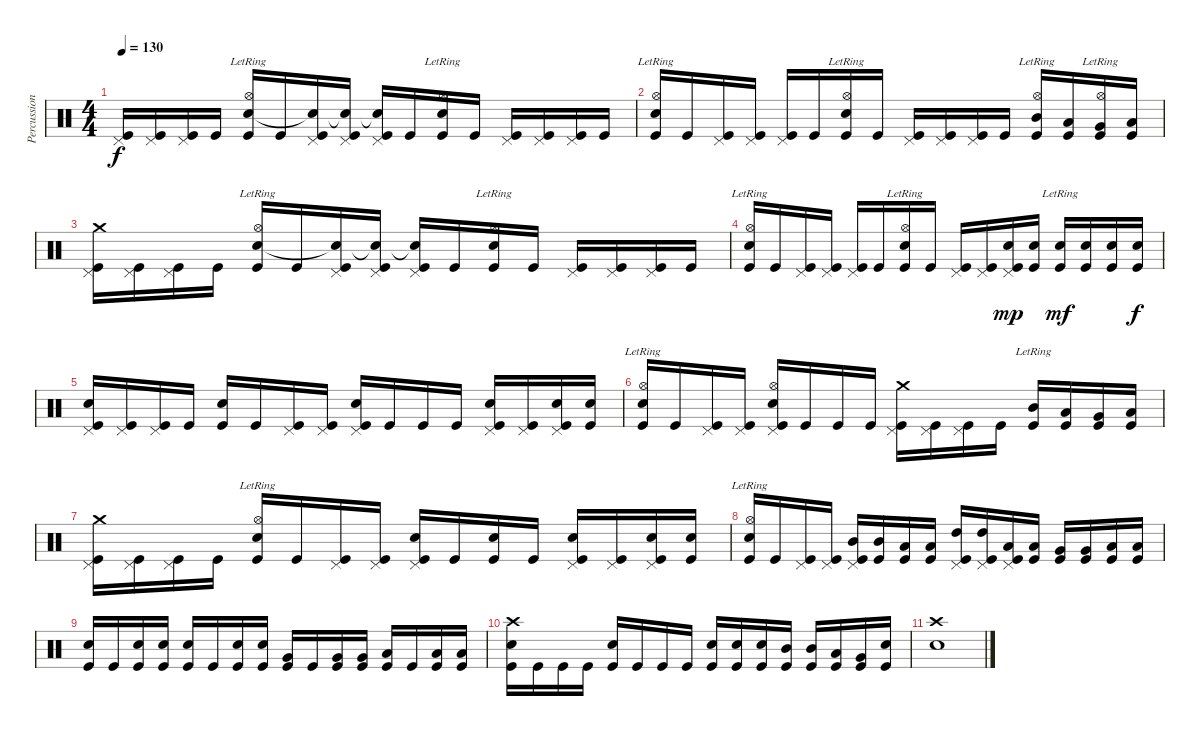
\track ("Percussions" "Percussion") {instrument percussion}
\staff {score}
\articulation defaults
\ts (4 4)
\tempo 130
\clef neutral
\ks c
("Pedal Hi-Hat (hit)" "Kick (hit)").16{dy f} ("Pedal Hi-Hat (hit)" "Kick (hit)").16 ("Pedal Hi-Hat (hit)" "Kick (hit)").16 "Kick (hit)".16 ("Hi-Hat (open)"{lr} "Electric Snare (hit)" "Kick (hit)").16 "Kick (hit)".16 ("Pedal Hi-Hat (hit)" "Snare (hit)"{t} "Kick (hit)").16 ("Pedal Hi-Hat (hit)" "Snare (hit)"{t} "Kick (hit)").16 ("Pedal Hi-Hat (hit)" "Snare (hit)"{t} "Kick (hit)").16 "Kick (hit)".16 ("Hi-Hat (open)"{lr} "Electric Snare (hit)" "Kick (hit)").16 "Kick (hit)".16 ("Pedal Hi-Hat (hit)" "Kick (hit)").16 ("Pedal Hi-Hat (hit)" "Kick (hit)").16 ("Pedal Hi-Hat (hit)" "Kick (hit)").16 "Kick (hit)".16 |
("Hi-Hat (open)"{lr} "Electric Snare (hit)" "Kick (hit)").16 "Kick (hit)".16 ("Pedal Hi-Hat (hit)" "Kick (hit)").16 ("Pedal Hi-Hat (hit)" "Kick (hit)").16 ("Pedal Hi-Hat (hit)" "Kick (hit)").16 "Kick (hit)".16 ("Hi-Hat (open)"{lr} "Electric Snare (hit)" "Kick (hit)").16 "Kick (hit)".16 ("Pedal Hi-Hat (hit)" "Kick (hit)").16 ("Pedal Hi-Hat (hit)" "Kick (hit)").16 ("Pedal Hi-Hat (hit)" "Kick (hit)").16 "Kick (hit)".16 ("Hi-Hat (open)"{lr} "Mid Tom (hit)"{lr} "Kick (hit)").16 ("Low Tom (hit)" "Kick (hit)").16 ("Hi-Hat (open)"{lr} "Very Low Tom (hit)" "Kick (hit)").16 ("Low Floor Tom (hit)" "Kick (hit)").16 |
("Pedal Hi-Hat (hit)" "Crash medium (hit)" "Kick (hit)").16 ("Pedal Hi-Hat (hit)" "Kick (hit)").16 ("Pedal Hi-Hat (hit)" "Kick (hit)").16 "Kick (hit)".16 ("Hi-Hat (open)"{lr} "Electric Snare (hit)" "Kick (hit)").16 "Kick (hit)".16 ("Pedal Hi-Hat (hit)" "Snare (hit)"{t} "Kick (hit)").16 ("Pedal Hi-Hat (hit)" "Snare (hit)"{t} "Kick (hit)").16 ("Pedal Hi-Hat (hit)" "Snare (hit)"{t} "Kick (hit)").16 "Kick (hit)".16 ("Hi-Hat (open)"{lr} "Electric Snare (hit)" "Kick (hit)").16 "Kick (hit)".16 ("Pedal Hi-Hat (hit)" "Kick (hit)").16 ("Pedal Hi-Hat (hit)" "Kick (hit)").16 ("Pedal Hi-Hat (hit)" "Kick (hit)").16 "Kick (hit)".16 |
("Hi-Hat (open)"{lr} "Electric Snare (hit)" "Kick (hit)").16 "Kick (hit)".16 ("Pedal Hi-Hat (hit)" "Kick (hit)").16 ("Pedal Hi-Hat (hit)" "Kick (hit)").16 ("Pedal Hi-Hat (hit)" "Kick (hit)").16 "Kick (hit)".16 ("Hi-Hat (open)"{lr} "Electric Snare (hit)" "Kick (hit)").16 "Kick (hit)".16 ("Pedal Hi-Hat (hit)" "Kick (hit)").16 ("Pedal Hi-Hat (hit)" "Kick (hit)").16 ("Pedal Hi-Hat (hit)" "Electric Snare (hit)" "Kick (hit)").16{dy mp} ("Electric Snare (hit)" "Kick (hit)").16 ("Electric Snare (hit)"{lr} "Kick (hit)").16{dy mf} ("Snare (hit) 2" "Kick (hit)").16 ("Snare (hit) 2" "Kick (hit)").16 ("Snare (hit) 2" "Kick (hit)").16{dy f} |
("Pedal Hi-Hat (hit)" "Electric Snare (hit)" "Kick (hit)").16 ("Pedal Hi-Hat (hit)" "Kick (hit)").16 ("Pedal Hi-Hat (hit)" "Kick (hit)").16 "Kick (hit)".16 ("Electric Snare (hit)" "Kick (hit)").16 "Kick (hit)".16 ("Pedal Hi-Hat (hit)" "Kick (hit)").16 ("Pedal Hi-Hat (hit)" "Kick (hit)").16 ("Pedal Hi-Hat (hit)" "Electric Snare (hit)" "Kick (hit)").16 "Kick (hit)".16 "Kick (hit)".16 "Kick (hit)".16 ("Pedal Hi-Hat (hit)" "Snare (hit) 2" "Kick (hit)").16 ("Pedal Hi-Hat (hit)" "Kick (hit)").16 ("Pedal Hi-Hat (hit)" "Snare (hit) 2" "Kick (hit)").16 ("Snare (hit) 2" "Kick (hit)").16 |
("Hi-Hat (open)"{lr} "Electric Snare (hit)" "Kick (hit)").16 "Kick (hit)".16 ("Pedal Hi-Hat (hit)" "Kick (hit)").16 ("Pedal Hi-Hat (hit)" "Kick (hit)").16 ("Pedal Hi-Hat (hit)" "Hi-Hat (open)" "Electric Snare (hit)" "Kick (hit)").16 "Kick (hit)".16 "Kick (hit)".16 "Kick (hit)".16 ("Pedal Hi-Hat (hit)" "Crash medium (hit)" "Kick (hit)").16 ("Pedal Hi-Hat (hit)" "Kick (hit)").16 ("Pedal Hi-Hat (hit)" "Kick (hit)").16 "Kick (hit)".16 ("Mid Tom (hit)"{lr} "Kick (hit)").16 ("Low Tom (hit)" "Kick (hit)").16 ("Very Low Tom (hit)" "Kick (hit)").16 ("Low Floor Tom (hit)" "Kick (hit)").16 |
("Pedal Hi-Hat (hit)" "Crash medium (hit)" "Kick (hit)").16 ("Pedal Hi-Hat (hit)" "Kick (hit)").16 ("Pedal Hi-Hat (hit)" "Kick (hit)").16 "Kick (hit)".16 ("Hi-Hat (open)"{lr} "Electric Snare (hit)" "Kick (hit)").16 "Kick (hit)".16 ("Pedal Hi-Hat (hit)" "Kick (hit)").16 ("Pedal Hi-Hat (hit)" "Kick (hit)").16 ("Pedal Hi-Hat (hit)" "Electric Snare (hit)" "Kick (hit)").16 "Kick (hit)".16 ("Electric Snare (hit)" "Kick (hit)").16 "Kick (hit)".16 ("Pedal Hi-Hat (hit)" "Snare (hit) 2" "Kick (hit)").16 ("Pedal Hi-Hat (hit)" "Kick (hit)").16 ("Pedal Hi-Hat (hit)" "Snare (hit) 2" "Kick (hit)").16 ("Snare (hit) 2" "Kick (hit)").16 |
("Hi-Hat (open)"{lr} "Electric Snare (hit)" "Kick (hit)").16 "Kick (hit)".16 ("Pedal Hi-Hat (hit)" "Kick (hit)").16 ("Pedal Hi-Hat (hit)" "Kick (hit)").16 ("Pedal Hi-Hat (hit)" "Mid Tom (hit)" "Kick (hit)").16 ("Mid Tom (hit)" "Kick (hit)").16 ("Low Tom (hit)" "Kick (hit)").16 ("Low Tom (hit)" "Kick (hit)").16 ("Pedal Hi-Hat (hit)" "High Tom (hit)" "Kick (hit)").16 ("Pedal Hi-Hat (hit)" "High Tom (hit)" "Kick (hit)").16 ("Pedal Hi-Hat (hit)" "Low Tom (hit)" "Kick (hit)").16 ("Low Tom (hit)" "Kick (hit)").16 ("Very Low Tom (hit)" "Kick (hit)").16 ("Very Low Tom (hit)" "Kick (hit)").16 ("Low Floor Tom (hit)" "Kick (hit)").16 ("Low Floor Tom (hit)" "Kick (hit)").16 |
("Kick (hit)" "Snare (hit) 2").16 "Kick (hit)".16 ("Kick (hit)" "Snare (hit) 2").16 ("Kick (hit)" "Snare (hit) 2").16 ("Kick (hit)" "Electric Snare (hit)").16 "Kick (hit)".16 ("Kick (hit)" "Electric Snare (hit)").16 ("Kick (hit)" "Electric Snare (hit)").16 ("Kick (hit)" "Very Low Tom (hit)").16 "Kick (hit)".16 ("Kick (hit)" "Very Low Tom (hit)").16 ("Kick (hit)" "Very Low Tom (hit)").16 ("Kick (hit)" "Low Floor Tom (hit)").16 "Kick (hit)".16 ("Kick (hit)" "Low Floor Tom (hit)").16 ("Kick (hit)" "Low Floor Tom (hit)").16 |
("Kick (hit)" "Electric Snare (hit)" "Crash high (hit)").16 "Kick (hit)".16 "Kick (hit)".16 "Kick (hit)".16 ("Kick (hit)" "Electric Snare (hit)").16 "Kick (hit)".16 "Kick (hit)".16 "Kick (hit)".16 ("Kick (hit)" "Electric Snare (hit)").16 ("Kick (hit)" "Electric Snare (hit)").16 ("Kick (hit)" "Electric Snare (hit)").16 ("Kick (hit)" "Mid Tom (hit)").16 ("Kick (hit)" "Mid Tom (hit)").16 ("Kick (hit)" "Low Tom (hit)").16 ("Kick (hit)" "Very Low Tom (hit)").16 ("Kick (hit)" "Snare (hit) 2").16 |
("Electric Snare (hit)" "Crash high (hit)").1
